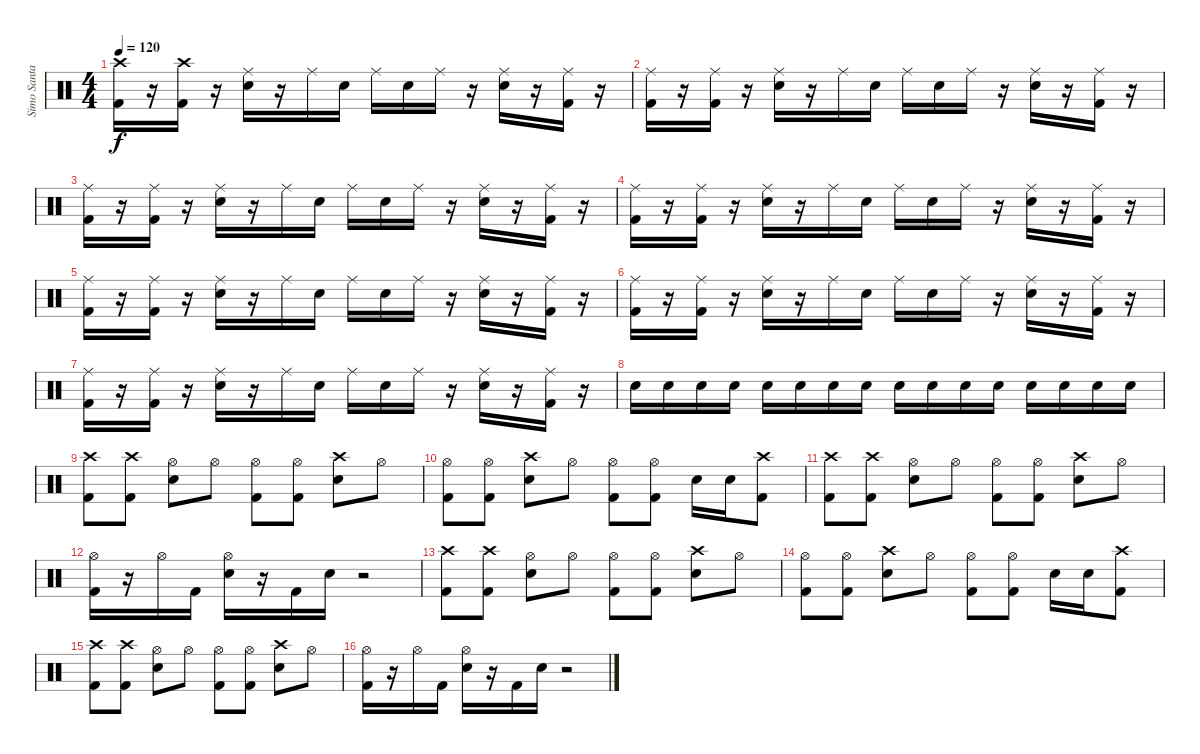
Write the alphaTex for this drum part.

\track ("Simo Santapukki" "Simo Santa") {instrument percussion}
\staff {score}
\articulation defaults
\ts (4 4)
\tempo 120
\clef neutral
\ks c
("Crash high (hit)" "Kick (hit) 2").16{dy f} r.16 ("Crash high (hit)" "Kick (hit) 2").16 r.16 ("Ride (middle)" "Snare (hit) 2").16 r.16 "Ride (middle)".16 "Snare (hit) 2".16 "Ride (middle)".16 "Snare (hit) 2".16 "Ride (middle)".16 r.16 ("Ride (middle)" "Snare (hit) 2").16 r.16 ("Ride (middle)" "Kick (hit) 2").16 r.16 |
("Ride (middle)" "Kick (hit) 2").16 r.16 ("Ride (middle)" "Kick (hit) 2").16 r.16 ("Ride (middle)" "Snare (hit) 2").16 r.16 "Ride (middle)".16 "Snare (hit) 2".16 "Ride (middle)".16 "Snare (hit) 2".16 "Ride (middle)".16 r.16 ("Ride (middle)" "Snare (hit) 2").16 r.16 ("Ride (middle)" "Kick (hit) 2").16 r.16 |
("Ride (middle)" "Kick (hit) 2").16 r.16 ("Ride (middle)" "Kick (hit) 2").16 r.16 ("Ride (middle)" "Snare (hit) 2").16 r.16 "Ride (middle)".16 "Snare (hit) 2".16 "Ride (middle)".16 "Snare (hit) 2".16 "Ride (middle)".16 r.16 ("Ride (middle)" "Snare (hit) 2").16 r.16 ("Ride (middle)" "Kick (hit) 2").16 r.16 |
("Ride (middle)" "Kick (hit) 2").16 r.16 ("Ride (middle)" "Kick (hit) 2").16 r.16 ("Ride (middle)" "Snare (hit) 2").16 r.16 "Ride (middle)".16 "Snare (hit) 2".16 "Ride (middle)".16 "Snare (hit) 2".16 "Ride (middle)".16 r.16 ("Ride (middle)" "Snare (hit) 2").16 r.16 ("Ride (middle)" "Kick (hit) 2").16 r.16 |
("Ride (middle)" "Kick (hit) 2").16 r.16 ("Ride (middle)" "Kick (hit) 2").16 r.16 ("Ride (middle)" "Snare (hit) 2").16 r.16 "Ride (middle)".16 "Snare (hit) 2".16 "Ride (middle)".16 "Snare (hit) 2".16 "Ride (middle)".16 r.16 ("Ride (middle)" "Snare (hit) 2").16 r.16 ("Ride (middle)" "Kick (hit) 2").16 r.16 |
("Ride (middle)" "Kick (hit) 2").16 r.16 ("Ride (middle)" "Kick (hit) 2").16 r.16 ("Ride (middle)" "Snare (hit) 2").16 r.16 "Ride (middle)".16 "Snare (hit) 2".16 "Ride (middle)".16 "Snare (hit) 2".16 "Ride (middle)".16 r.16 ("Ride (middle)" "Snare (hit) 2").16 r.16 ("Ride (middle)" "Kick (hit) 2").16 r.16 |
("Ride (middle)" "Kick (hit) 2").16 r.16 ("Ride (middle)" "Kick (hit) 2").16 r.16 ("Ride (middle)" "Snare (hit) 2").16 r.16 "Ride (middle)".16 "Snare (hit) 2".16 "Ride (middle)".16 "Snare (hit) 2".16 "Ride (middle)".16 r.16 ("Ride (middle)" "Snare (hit) 2").16 r.16 ("Ride (middle)" "Kick (hit) 2").16 r.16 |
"Snare (hit) 2".16 "Snare (hit) 2".16 "Snare (hit) 2".16 "Snare (hit) 2".16 "Snare (hit) 2".16 "Snare (hit) 2".16 "Snare (hit) 2".16 "Snare (hit) 2".16 "Snare (hit) 2".16 "Snare (hit) 2".16 "Snare (hit) 2".16 "Snare (hit) 2".16 "Snare (hit) 2".16 "Snare (hit) 2".16 "Snare (hit) 2".16 "Snare (hit) 2".16 |
("Crash high (hit)" "Kick (hit) 2").8 ("Crash high (hit)" "Kick (hit) 2").8 ("Hi-Hat (open)" "Snare (hit) 2").8 "Hi-Hat (open)".8 ("Hi-Hat (open)" "Kick (hit) 2").8 ("Hi-Hat (open)" "Kick (hit) 2").8 ("Crash high (hit)" "Snare (hit) 2").8 "Hi-Hat (open)".8 |
("Hi-Hat (open)" "Kick (hit) 2").8 ("Hi-Hat (open)" "Kick (hit) 2").8 ("Crash high (hit)" "Snare (hit) 2").8 "Hi-Hat (open)".8 ("Hi-Hat (open)" "Kick (hit) 2").8 ("Hi-Hat (open)" "Kick (hit) 2").8 "Snare (hit) 2".16 "Snare (hit) 2".16 ("Crash high (hit)" "Kick (hit) 2").8 |
("Crash high (hit)" "Kick (hit) 2").8 ("Crash high (hit)" "Kick (hit) 2").8 ("Hi-Hat (open)" "Snare (hit) 2").8 "Hi-Hat (open)".8 ("Hi-Hat (open)" "Kick (hit) 2").8 ("Hi-Hat (open)" "Kick (hit) 2").8 ("Crash high (hit)" "Snare (hit) 2").8 "Hi-Hat (open)".8 |
("Hi-Hat (open)" "Kick (hit) 2").16 r.16 "Hi-Hat (open)".16 "Kick (hit) 2".16 ("Hi-Hat (open)" "Snare (hit) 2").16 r.16 "Kick (hit) 2".16 "Snare (hit) 2".16 r.2 |
("Crash high (hit)" "Kick (hit) 2").8 ("Crash high (hit)" "Kick (hit) 2").8 ("Hi-Hat (open)" "Snare (hit) 2").8 "Hi-Hat (open)".8 ("Hi-Hat (open)" "Kick (hit) 2").8 ("Hi-Hat (open)" "Kick (hit) 2").8 ("Crash high (hit)" "Snare (hit) 2").8 "Hi-Hat (open)".8 |
("Hi-Hat (open)" "Kick (hit) 2").8 ("Hi-Hat (open)" "Kick (hit) 2").8 ("Crash high (hit)" "Snare (hit) 2").8 "Hi-Hat (open)".8 ("Hi-Hat (open)" "Kick (hit) 2").8 ("Hi-Hat (open)" "Kick (hit) 2").8 "Snare (hit) 2".16 "Snare (hit) 2".16 ("Crash high (hit)" "Kick (hit) 2").8 |
("Crash high (hit)" "Kick (hit) 2").8 ("Crash high (hit)" "Kick (hit) 2").8 ("Hi-Hat (open)" "Snare (hit) 2").8 "Hi-Hat (open)".8 ("Hi-Hat (open)" "Kick (hit) 2").8 ("Hi-Hat (open)" "Kick (hit) 2").8 ("Crash high (hit)" "Snare (hit) 2").8 "Hi-Hat (open)".8 |
("Hi-Hat (open)" "Kick (hit) 2").16 r.16 "Hi-Hat (open)".16 "Kick (hit) 2".16 ("Hi-Hat (open)" "Snare (hit) 2").16 r.16 "Kick (hit) 2".16 "Snare (hit) 2".16 r.2
